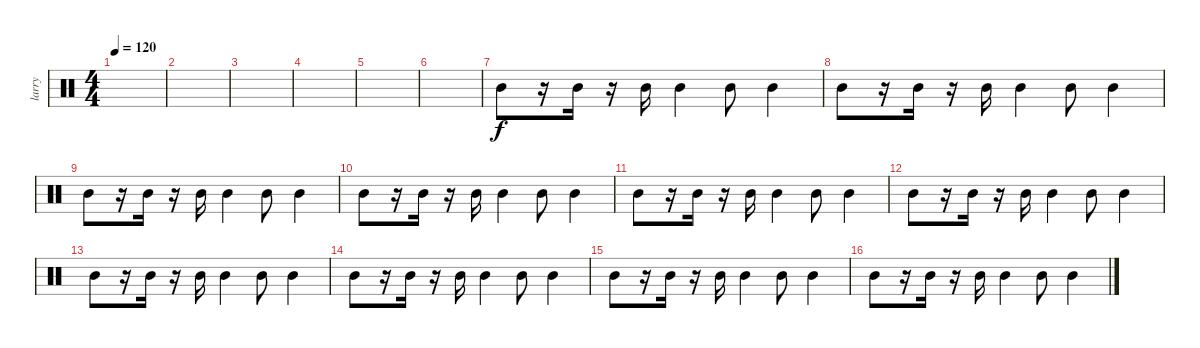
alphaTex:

\track ("larry" "larry") {instrument percussion}
\staff {score}
\articulation defaults
\ts (4 4)
\tempo 120
\clef neutral
\ks c
|
|
|
|
|
|
"Mid Tom (hit)".8 r.16 "Mid Tom (hit)".16 r.16 "Mid Tom (hit)".16 "Mid Tom (hit)".4 "Mid Tom (hit)".8 "Mid Tom (hit)".4 |
"Mid Tom (hit)".8 r.16 "Mid Tom (hit)".16 r.16 "Mid Tom (hit)".16 "Mid Tom (hit)".4 "Mid Tom (hit)".8 "Mid Tom (hit)".4 |
"Mid Tom (hit)".8 r.16 "Mid Tom (hit)".16 r.16 "Mid Tom (hit)".16 "Mid Tom (hit)".4 "Mid Tom (hit)".8 "Mid Tom (hit)".4 |
"Mid Tom (hit)".8 r.16 "Mid Tom (hit)".16 r.16 "Mid Tom (hit)".16 "Mid Tom (hit)".4 "Mid Tom (hit)".8 "Mid Tom (hit)".4 |
"Mid Tom (hit)".8 r.16 "Mid Tom (hit)".16 r.16 "Mid Tom (hit)".16 "Mid Tom (hit)".4 "Mid Tom (hit)".8 "Mid Tom (hit)".4 |
"Mid Tom (hit)".8 r.16 "Mid Tom (hit)".16 r.16 "Mid Tom (hit)".16 "Mid Tom (hit)".4 "Mid Tom (hit)".8 "Mid Tom (hit)".4 |
"Mid Tom (hit)".8 r.16 "Mid Tom (hit)".16 r.16 "Mid Tom (hit)".16 "Mid Tom (hit)".4 "Mid Tom (hit)".8 "Mid Tom (hit)".4 |
"Mid Tom (hit)".8 r.16 "Mid Tom (hit)".16 r.16 "Mid Tom (hit)".16 "Mid Tom (hit)".4 "Mid Tom (hit)".8 "Mid Tom (hit)".4 |
"Mid Tom (hit)".8 r.16 "Mid Tom (hit)".16 r.16 "Mid Tom (hit)".16 "Mid Tom (hit)".4 "Mid Tom (hit)".8 "Mid Tom (hit)".4 |
"Mid Tom (hit)".8 r.16 "Mid Tom (hit)".16 r.16 "Mid Tom (hit)".16 "Mid Tom (hit)".4 "Mid Tom (hit)".8 "Mid Tom (hit)".4
